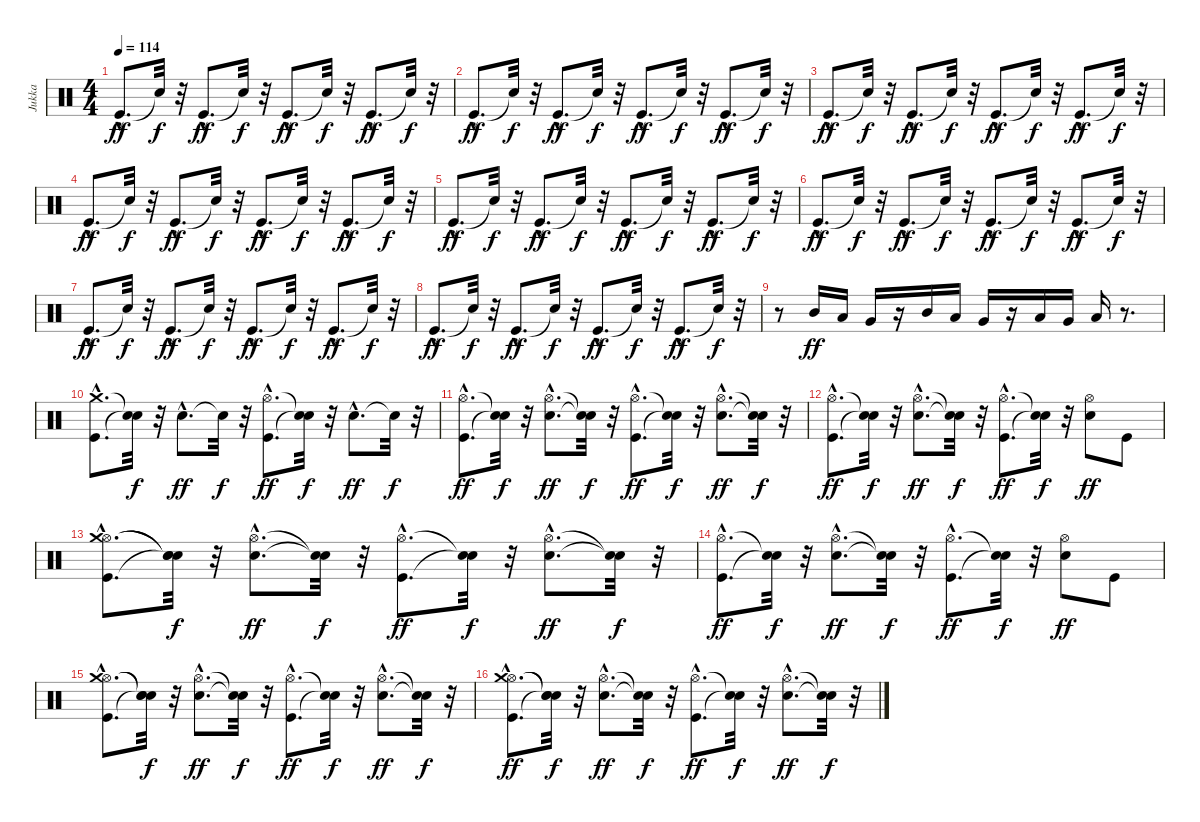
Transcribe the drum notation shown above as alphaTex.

\track ("Jukka" "Jukka") {instrument percussion}
\staff {score}
\articulation defaults
\ts (4 4)
\tempo 114
\clef neutral
\ks c "Kick (hit)"{hac}.8{d dy ff} "Snare (hit)"{t}.32{dy f}
r.32 "Kick (hit)"{hac}.8{d dy ff} "Snare (hit)"{t}.32{dy f} r.32 "Kick (hit)"{hac}.8{d dy ff} "Snare (hit)"{t}.32{dy f} r.32 "Kick (hit)"{hac}.8{d dy ff} "Snare (hit)"{t}.32{dy f} r.32 |
"Kick (hit)"{hac}.8{d dy ff} "Snare (hit)"{t}.32{dy f} r.32 "Kick (hit)"{hac}.8{d dy ff} "Snare (hit)"{t}.32{dy f} r.32 "Kick (hit)"{hac}.8{d dy ff} "Snare (hit)"{t}.32{dy f} r.32 "Kick (hit)"{hac}.8{d dy ff} "Snare (hit)"{t}.32{dy f} r.32 |
"Kick (hit)"{hac}.8{d dy ff} "Snare (hit)"{t}.32{dy f} r.32 "Kick (hit)"{hac}.8{d dy ff} "Snare (hit)"{t}.32{dy f} r.32 "Kick (hit)"{hac}.8{d dy ff} "Snare (hit)"{t}.32{dy f} r.32 "Kick (hit)"{hac}.8{d dy ff} "Snare (hit)"{t}.32{dy f} r.32 |
"Kick (hit)"{hac}.8{d dy ff} "Snare (hit)"{t}.32{dy f} r.32 "Kick (hit)"{hac}.8{d dy ff} "Snare (hit)"{t}.32{dy f} r.32 "Kick (hit)"{hac}.8{d dy ff} "Snare (hit)"{t}.32{dy f} r.32 "Kick (hit)"{hac}.8{d dy ff} "Snare (hit)"{t}.32{dy f} r.32 |
"Kick (hit)"{hac}.8{d dy ff} "Snare (hit)"{t}.32{dy f} r.32 "Kick (hit)"{hac}.8{d dy ff} "Snare (hit)"{t}.32{dy f} r.32 "Kick (hit)"{hac}.8{d dy ff} "Snare (hit)"{t}.32{dy f} r.32 "Kick (hit)"{hac}.8{d dy ff} "Snare (hit)"{t}.32{dy f} r.32 |
"Kick (hit)"{hac}.8{d dy ff} "Snare (hit)"{t}.32{dy f} r.32 "Kick (hit)"{hac}.8{d dy ff} "Snare (hit)"{t}.32{dy f} r.32 "Kick (hit)"{hac}.8{d dy ff} "Snare (hit)"{t}.32{dy f} r.32 "Kick (hit)"{hac}.8{d dy ff} "Snare (hit)"{t}.32{dy f} r.32 |
"Kick (hit)"{hac}.8{d dy ff} "Snare (hit)"{t}.32{dy f} r.32 "Kick (hit)"{hac}.8{d dy ff} "Snare (hit)"{t}.32{dy f} r.32 "Kick (hit)"{hac}.8{d dy ff} "Snare (hit)"{t}.32{dy f} r.32 "Kick (hit)"{hac}.8{d dy ff} "Snare (hit)"{t}.32{dy f} r.32 |
"Kick (hit)"{hac}.8{d dy ff} "Snare (hit)"{t}.32{dy f} r.32 "Kick (hit)"{hac}.8{d dy ff} "Snare (hit)"{t}.32{dy f} r.32 "Kick (hit)"{hac}.8{d dy ff} "Snare (hit)"{t}.32{dy f} r.32 "Kick (hit)"{hac}.8{d dy ff} "Snare (hit)"{t}.32{dy f} r.32 |
r.8 "Mid Tom (hit)".16{dy ff} "Low Tom (hit)".16 "Very Low Tom (hit)".16 r.16 "Mid Tom (hit)".16 "Low Tom (hit)".16 "Very Low Tom (hit)".16 r.16 "Low Tom (hit)".16 "Very Low Tom (hit)".16 "Low Floor Tom (hit)".16 r.8{d} |
("Kick (hit)"{hac} "Crash medium (hit)"{hac}).8{d} ("Snare (hit)"{t} "Snare (hit)"{t}).32{dy f} r.32 "Electric Snare (hit)"{hac}.8{d dy ff} "Snare (hit)"{t}.32{dy f} r.32 ("Kick (hit)"{hac} "Hi-Hat (open)"{hac}).8{d dy ff} ("Snare (hit)"{t} "Snare (hit)"{t}).32{dy f} r.32 "Electric Snare (hit)"{hac}.8{d dy ff} "Snare (hit)"{t}.32{dy f} r.32 |
("Kick (hit)"{hac} "Hi-Hat (open)"{hac}).8{d dy ff} ("Snare (hit)"{t} "Snare (hit)"{t}).32{dy f} r.32 ("Electric Snare (hit)"{hac} "Hi-Hat (open)"{hac}).8{d dy ff} ("Snare (hit)"{t} "Snare (hit)"{t}).32{dy f} r.32 ("Kick (hit)"{hac} "Hi-Hat (open)"{hac}).8{d dy ff} ("Snare (hit)"{t} "Snare (hit)"{t}).32{dy f} r.32 ("Electric Snare (hit)"{hac} "Hi-Hat (open)"{hac}).8{d dy ff} ("Snare (hit)"{t} "Snare (hit)"{t}).32{dy f} r.32 |
("Kick (hit)"{hac} "Hi-Hat (open)"{hac}).8{d dy ff} ("Snare (hit)"{t} "Snare (hit)"{t}).32{dy f} r.32 ("Electric Snare (hit)"{hac} "Hi-Hat (open)"{hac}).8{d dy ff} ("Snare (hit)"{t} "Snare (hit)"{t}).32{dy f} r.32 ("Kick (hit)"{hac} "Hi-Hat (open)"{hac}).8{d dy ff} ("Snare (hit)"{t} "Snare (hit)"{t}).32{dy f} r.32 ("Electric Snare (hit)" "Hi-Hat (open)").8{dy ff} "Kick (hit)".8 |
("Kick (hit)"{hac} "Hi-Hat (open)"{hac} "Crash medium (hit)"{hac}).8{d} ("Snare (hit)"{t} "Snare (hit)"{t} "Snare (hit)"{t}).32{dy f} r.32 ("Electric Snare (hit)"{hac} "Hi-Hat (open)"{hac}).8{d dy ff} ("Snare (hit)"{t} "Snare (hit)"{t}).32{dy f} r.32 ("Kick (hit)"{hac} "Hi-Hat (open)"{hac}).8{d dy ff} ("Snare (hit)"{t} "Snare (hit)"{t}).32{dy f} r.32 ("Electric Snare (hit)"{hac} "Hi-Hat (open)"{hac}).8{d dy ff} ("Snare (hit)"{t} "Snare (hit)"{t}).32{dy f} r.32 |
("Kick (hit)"{hac} "Hi-Hat (open)"{hac}).8{d dy ff} ("Snare (hit)"{t} "Snare (hit)"{t}).32{dy f} r.32 ("Electric Snare (hit)"{hac} "Hi-Hat (open)"{hac}).8{d dy ff} ("Snare (hit)"{t} "Snare (hit)"{t}).32{dy f} r.32 ("Kick (hit)"{hac} "Hi-Hat (open)"{hac}).8{d dy ff} ("Snare (hit)"{t} "Snare (hit)"{t}).32{dy f} r.32 ("Electric Snare (hit)" "Hi-Hat (open)").8{dy ff} "Kick (hit)".8 |
("Kick (hit)"{hac} "Hi-Hat (open)"{hac} "Crash medium (hit)"{hac}).8{d} ("Snare (hit)"{t} "Snare (hit)"{t} "Snare (hit)"{t}).32{dy f} r.32 ("Electric Snare (hit)"{hac} "Hi-Hat (open)"{hac}).8{d dy ff} ("Snare (hit)"{t} "Snare (hit)"{t}).32{dy f} r.32 ("Kick (hit)"{hac} "Hi-Hat (open)"{hac}).8{d dy ff} ("Snare (hit)"{t} "Snare (hit)"{t}).32{dy f} r.32 ("Electric Snare (hit)"{hac} "Hi-Hat (open)"{hac}).8{d dy ff} ("Snare (hit)"{t} "Snare (hit)"{t}).32{dy f} r.32 |
("Kick (hit)"{hac} "Hi-Hat (open)"{hac} "Crash medium (hit)"{hac}).8{d dy ff} ("Snare (hit)"{t} "Snare (hit)"{t} "Snare (hit)"{t}).32{dy f} r.32 ("Electric Snare (hit)"{hac} "Hi-Hat (open)"{hac}).8{d dy ff} ("Snare (hit)"{t} "Snare (hit)"{t}).32{dy f} r.32 ("Kick (hit)"{hac} "Hi-Hat (open)"{hac}).8{d dy ff} ("Snare (hit)"{t} "Snare (hit)"{t}).32{dy f} r.32 ("Electric Snare (hit)"{hac} "Hi-Hat (open)"{hac}).8{d dy ff} ("Snare (hit)"{t} "Snare (hit)"{t}).32{dy f} r.32
